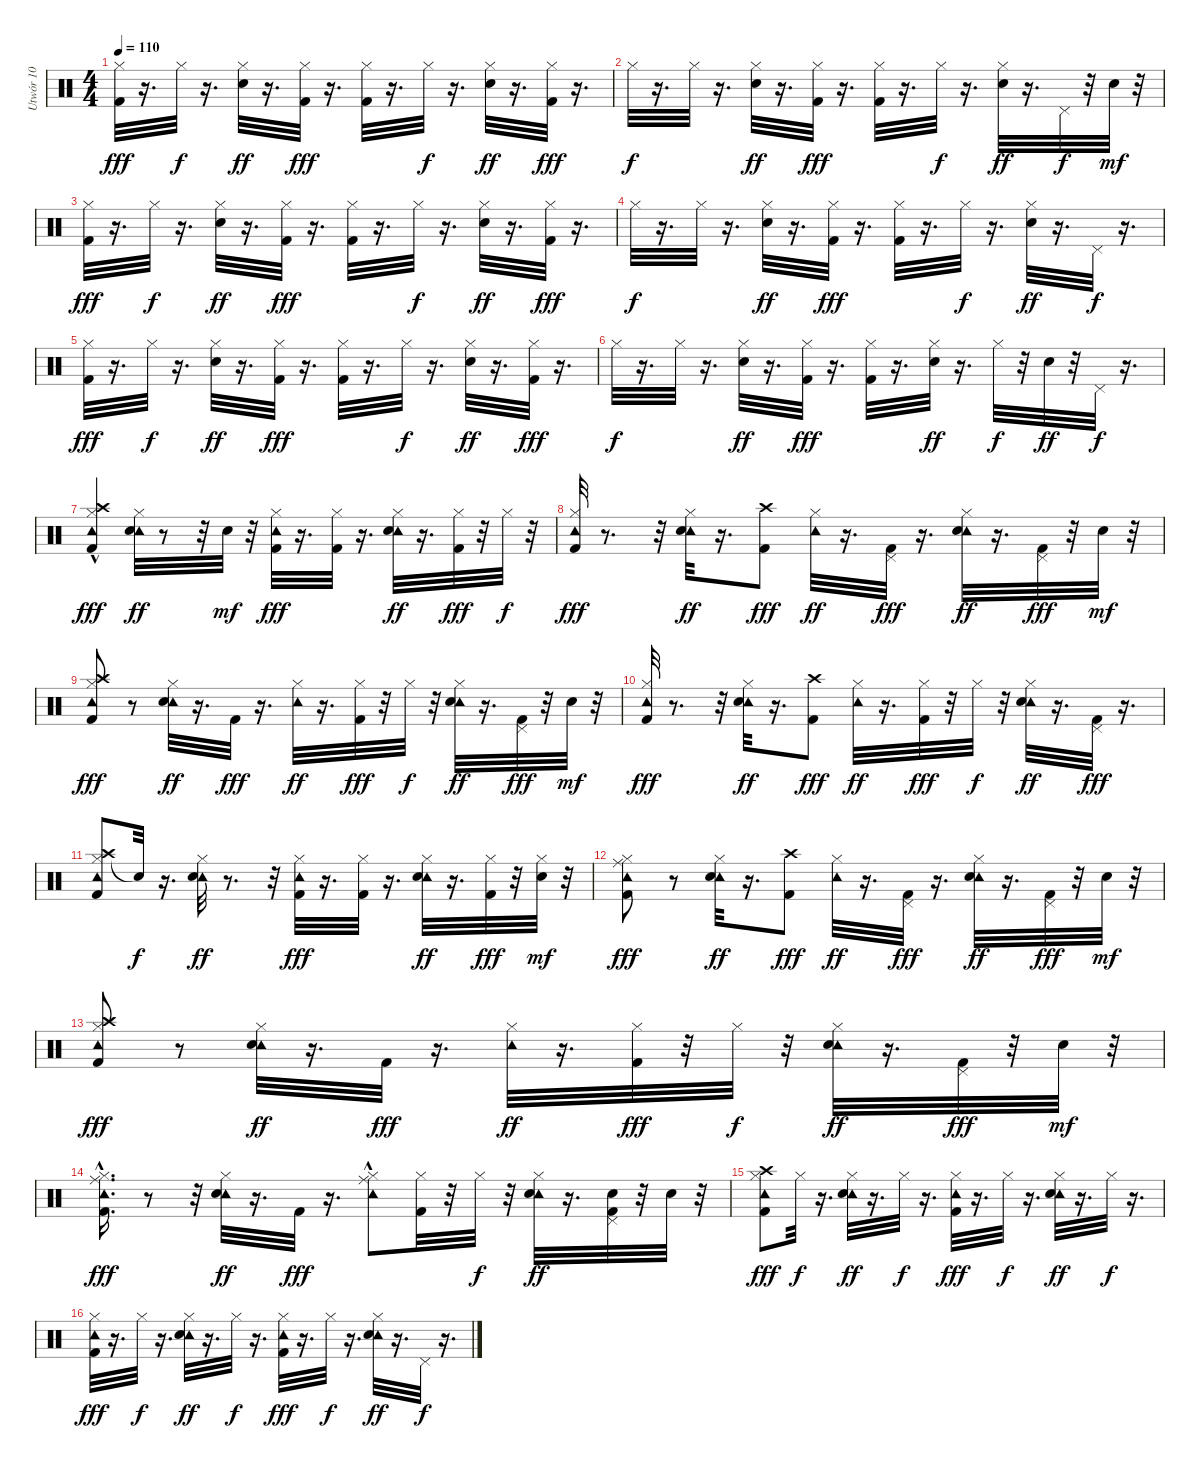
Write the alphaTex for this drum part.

\track ("Utwór 10" "Utwór 10") {instrument percussion}
\staff {score}
\articulation defaults
\ts (4 4)
\tempo 110
\clef neutral
\ks c
("Kick (hit) 2" "Hi-Hat (closed)").32{dy fff} r.16{d} "Hi-Hat (closed)".32{dy f} r.16{d} ("Snare (hit) 2" "Hi-Hat (closed)").32{dy ff} r.16{d} ("Kick (hit) 2" "Hi-Hat (closed)").32{dy fff} r.16{d} ("Kick (hit) 2" "Hi-Hat (closed)").32 r.16{d} "Hi-Hat (closed)".32{dy f} r.16{d} ("Snare (hit) 2" "Hi-Hat (closed)").32{dy ff} r.16{d} ("Kick (hit) 2" "Hi-Hat (closed)").32{dy fff} r.16{d} |
"Hi-Hat (closed)".32{dy f} r.16{d} "Hi-Hat (closed)".32 r.16{d} ("Snare (hit) 2" "Hi-Hat (closed)").32{dy ff} r.16{d} ("Kick (hit) 2" "Hi-Hat (closed)").32{dy fff} r.16{d} ("Kick (hit) 2" "Hi-Hat (closed)").32 r.16{d} "Hi-Hat (closed)".32{dy f} r.16{d} ("Snare (hit) 2" "Hi-Hat (closed)").32{dy ff} r.16{d} "Pedal Hi-Hat (hit)".32{dy f} r.32 "Snare (hit) 2".32{dy mf} r.32 |
("Kick (hit) 2" "Hi-Hat (closed)").32{dy fff} r.16{d} "Hi-Hat (closed)".32{dy f} r.16{d} ("Snare (hit) 2" "Hi-Hat (closed)").32{dy ff} r.16{d} ("Kick (hit) 2" "Hi-Hat (closed)").32{dy fff} r.16{d} ("Kick (hit) 2" "Hi-Hat (closed)").32 r.16{d} "Hi-Hat (closed)".32{dy f} r.16{d} ("Snare (hit) 2" "Hi-Hat (closed)").32{dy ff} r.16{d} ("Kick (hit) 2" "Hi-Hat (closed)").32{dy fff} r.16{d} |
"Hi-Hat (closed)".32{dy f} r.16{d} "Hi-Hat (closed)".32 r.16{d} ("Snare (hit) 2" "Hi-Hat (closed)").32{dy ff} r.16{d} ("Kick (hit) 2" "Hi-Hat (closed)").32{dy fff} r.16{d} ("Kick (hit) 2" "Hi-Hat (closed)").32 r.16{d} "Hi-Hat (closed)".32{dy f} r.16{d} ("Snare (hit) 2" "Hi-Hat (closed)").32{dy ff} r.16{d} "Pedal Hi-Hat (hit)".32{dy f} r.16{d} |
("Kick (hit) 2" "Hi-Hat (closed)").32{dy fff} r.16{d} "Hi-Hat (closed)".32{dy f} r.16{d} ("Snare (hit) 2" "Hi-Hat (closed)").32{dy ff} r.16{d} ("Kick (hit) 2" "Hi-Hat (closed)").32{dy fff} r.16{d} ("Kick (hit) 2" "Hi-Hat (closed)").32 r.16{d} "Hi-Hat (closed)".32{dy f} r.16{d} ("Snare (hit) 2" "Hi-Hat (closed)").32{dy ff} r.16{d} ("Kick (hit) 2" "Hi-Hat (closed)").32{dy fff} r.16{d} |
"Hi-Hat (closed)".32{dy f} r.16{d} "Hi-Hat (closed)".32 r.16{d} ("Snare (hit) 2" "Hi-Hat (closed)").32{dy ff} r.16{d} ("Kick (hit) 2" "Hi-Hat (closed)").32{dy fff} r.16{d} ("Kick (hit) 2" "Hi-Hat (closed)").32 r.16{d} ("Snare (hit) 2" "Hi-Hat (closed)").32{dy ff} r.16{d} "Hi-Hat (closed)".32{dy f} r.32 "Snare (hit) 2".32{dy ff} r.32 "Pedal Hi-Hat (hit)".32{dy f} r.16{d} |
("Crash high (hit)"{hac} "Tambourine (hit)" "Kick (hit) 2" "Hi-Hat (closed)").4{dy fff} ("Tambourine (hit)" "Snare (hit) 2" "Hi-Hat (closed)").32{dy ff} r.8 r.32 "Snare (hit) 2".32{dy mf} r.32 ("Tambourine (hit)" "Kick (hit) 2" "Hi-Hat (closed)").32{dy fff} r.16{d} ("Kick (hit) 2" "Hi-Hat (closed)").32 r.16{d} ("Tambourine (hit)" "Snare (hit) 2" "Hi-Hat (closed)").32{dy ff} r.16{d} ("Kick (hit) 2" "Hi-Hat (closed)").32{dy fff} r.32 "Hi-Hat (closed)".32{dy f} r.32 |
("Tambourine (hit)" "Kick (hit) 2" "Hi-Hat (closed)").32{dy fff} r.8{d} r.32 ("Tambourine (hit)" "Snare (hit) 2" "Hi-Hat (closed)").32{dy ff} r.16{d} ("Kick (hit) 2" "Crash high (hit)").8{dy fff} ("Tambourine (hit)" "Hi-Hat (closed)").32{dy ff} r.16{d} ("Kick (hit) 2" "Pedal Hi-Hat (hit)").32{dy fff} r.16{d} ("Tambourine (hit)" "Snare (hit) 2" "Hi-Hat (closed)").32{dy ff} r.16{d} ("Kick (hit) 2" "Pedal Hi-Hat (hit)").32{dy fff} r.32 "Snare (hit) 2".32{dy mf} r.32 |
("Crash high (hit)" "Tambourine (hit)" "Kick (hit) 2" "Hi-Hat (closed)").8{dy fff} r.8 ("Tambourine (hit)" "Snare (hit) 2" "Hi-Hat (closed)").32{dy ff} r.16{d} "Kick (hit) 2".32{dy fff} r.16{d} ("Tambourine (hit)" "Hi-Hat (closed)").32{dy ff} r.16{d} ("Kick (hit) 2" "Hi-Hat (closed)").32{dy fff} r.32 "Hi-Hat (closed)".32{dy f} r.32 ("Tambourine (hit)" "Snare (hit) 2" "Hi-Hat (closed)").32{dy ff} r.16{d} ("Kick (hit) 2" "Pedal Hi-Hat (hit)").32{dy fff} r.32 "Snare (hit) 2".32{dy mf} r.32 |
("Tambourine (hit)" "Kick (hit) 2" "Hi-Hat (closed)").32{dy fff} r.8{d} r.32 ("Tambourine (hit)" "Snare (hit) 2" "Hi-Hat (closed)").32{dy ff} r.16{d} ("Crash high (hit)" "Kick (hit) 2").8{dy fff} ("Tambourine (hit)" "Hi-Hat (closed)").32{dy ff} r.16{d} ("Kick (hit) 2" "Hi-Hat (closed)").32{dy fff} r.32 "Hi-Hat (closed)".32{dy f} r.32 ("Tambourine (hit)" "Snare (hit) 2" "Hi-Hat (closed)").32{dy ff} r.16{d} ("Kick (hit) 2" "Pedal Hi-Hat (hit)").32{dy fff} r.16{d} |
("Crash high (hit)" "Tambourine (hit)" "Kick (hit) 2" "Hi-Hat (closed)").8 "Snare (hit)"{t}.32{dy f} r.16{d} ("Tambourine (hit)" "Snare (hit) 2" "Hi-Hat (closed)").32{dy ff} r.8{d} r.32 ("Tambourine (hit)" "Kick (hit) 2" "Hi-Hat (closed)").32{dy fff} r.16{d} ("Kick (hit) 2" "Hi-Hat (closed)").32 r.16{d} ("Tambourine (hit)" "Snare (hit) 2" "Hi-Hat (closed)").32{dy ff} r.16{d} ("Kick (hit) 2" "Hi-Hat (closed)").32{dy fff} r.32 ("Snare (hit) 2" "Hi-Hat (closed)").32{dy mf} r.32 |
("Ride (middle)" "Tambourine (hit)" "Kick (hit) 2" "Hi-Hat (closed)").8{dy fff} r.8 ("Tambourine (hit)" "Snare (hit) 2" "Hi-Hat (closed)").32{dy ff} r.16{d} ("Crash high (hit)" "Kick (hit) 2").8{dy fff} ("Tambourine (hit)" "Hi-Hat (closed)").32{dy ff} r.16{d} ("Kick (hit) 2" "Pedal Hi-Hat (hit)").32{dy fff} r.16{d} ("Tambourine (hit)" "Snare (hit) 2" "Hi-Hat (closed)").32{dy ff} r.16{d} ("Kick (hit) 2" "Pedal Hi-Hat (hit)").32{dy fff} r.32 "Snare (hit) 2".32{dy mf} r.32 |
("Crash high (hit)" "Tambourine (hit)" "Kick (hit) 2" "Hi-Hat (closed)").8{dy fff} r.8 ("Tambourine (hit)" "Snare (hit) 2" "Hi-Hat (closed)").32{dy ff} r.16{d} "Kick (hit) 2".32{dy fff} r.16{d} ("Tambourine (hit)" "Hi-Hat (closed)").32{dy ff} r.16{d} ("Kick (hit) 2" "Hi-Hat (closed)").32{dy fff} r.32 "Hi-Hat (closed)".32{dy f} r.32 ("Tambourine (hit)" "Snare (hit) 2" "Hi-Hat (closed)").32{dy ff} r.16{d} ("Kick (hit) 2" "Pedal Hi-Hat (hit)").32{dy fff} r.32 "Snare (hit) 2".32{dy mf} r.32 |
("Ride (middle)"{hac} "Tambourine (hit)" "Kick (hit) 2" "Hi-Hat (closed)").16{d dy fff} r.8 r.32 ("Tambourine (hit)" "Snare (hit) 2" "Hi-Hat (closed)").32{dy ff} r.16{d} "Kick (hit) 2".32{dy fff} r.16{d} ("Tambourine (hit)" "Ride (middle)"{hac} "Hi-Hat (closed)").8 ("Kick (hit) 2" "Hi-Hat (closed)").32 r.32 "Hi-Hat (closed)".32{dy f} r.32 ("Tambourine (hit)" "Snare (hit) 2" "Hi-Hat (closed)").32{dy ff} r.16{d} ("Kick (hit) 2" "Snare (hit) 2" "Pedal Hi-Hat (hit)").32 r.32 "Snare (hit) 2".32 r.32 |
("Tambourine (hit)" "Kick (hit) 2" "Crash high (hit)" "Hi-Hat (closed)").8{dy fff} "Hi-Hat (closed)".32{dy f} r.16{d} ("Tambourine (hit)" "Snare (hit) 2" "Hi-Hat (closed)").32{dy ff} r.16{d} "Hi-Hat (closed)".32{dy f} r.16{d} ("Tambourine (hit)" "Kick (hit) 2" "Hi-Hat (closed)").32{dy fff} r.16{d} "Hi-Hat (closed)".32{dy f} r.16{d} ("Tambourine (hit)" "Snare (hit) 2" "Hi-Hat (closed)").32{dy ff} r.16{d} "Hi-Hat (closed)".32{dy f} r.16{d} |
("Tambourine (hit)" "Kick (hit) 2" "Hi-Hat (closed)").32{dy fff} r.16{d} "Hi-Hat (closed)".32{dy f} r.16{d} ("Tambourine (hit)" "Snare (hit) 2" "Hi-Hat (closed)").32{dy ff} r.16{d} "Hi-Hat (closed)".32{dy f} r.16{d} ("Tambourine (hit)" "Kick (hit) 2" "Hi-Hat (closed)").32{dy fff} r.16{d} "Hi-Hat (closed)".32{dy f} r.16{d} ("Tambourine (hit)" "Snare (hit) 2" "Hi-Hat (closed)").32{dy ff} r.16{d} "Pedal Hi-Hat (hit)".32{dy f} r.16{d}
